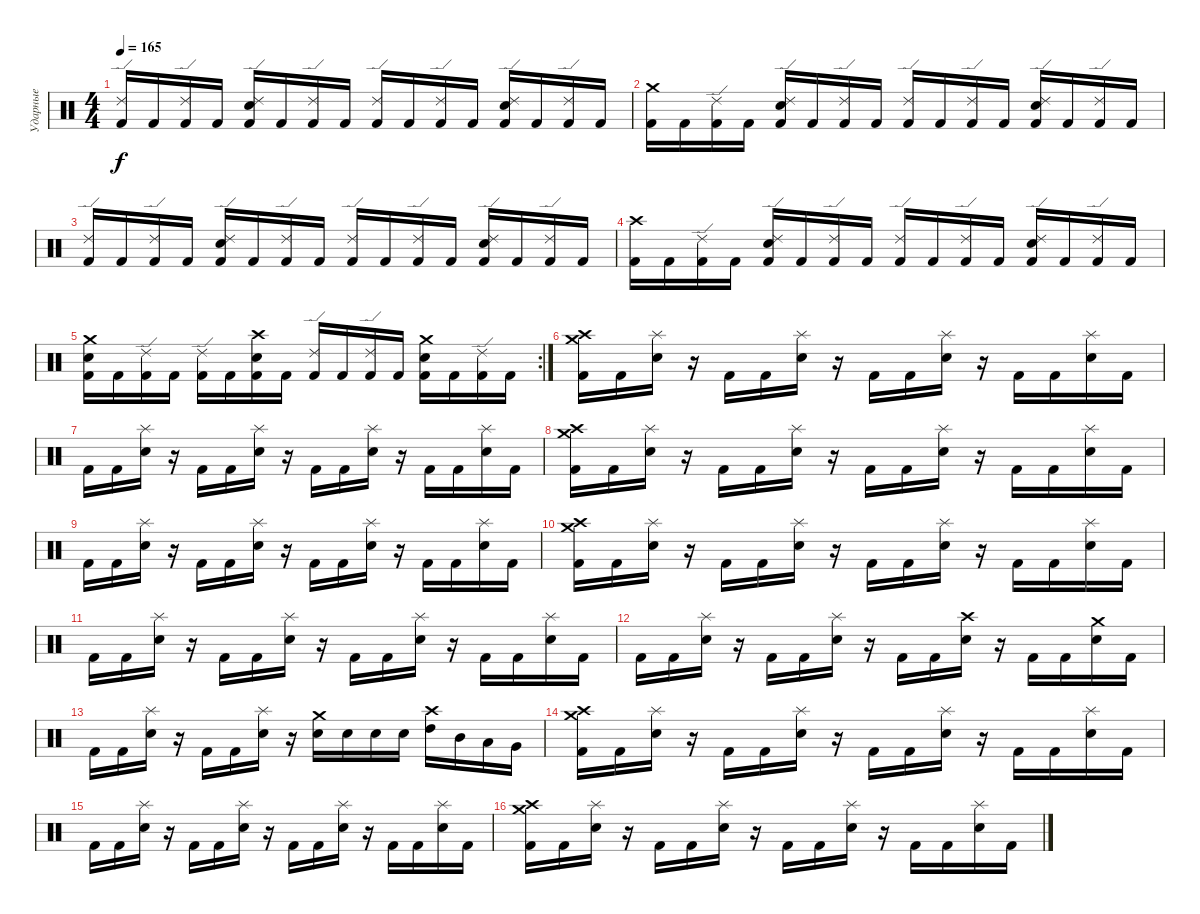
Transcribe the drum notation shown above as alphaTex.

\track ("Ударные" "Ударные") {instrument percussion}
\staff {score}
\articulation defaults
\ts (4 4)
\tempo 165
\clef neutral
\ks c
("Ride (edge) 2" "Kick (hit) 2").16{dy f} "Kick (hit) 2".16 ("Ride (edge) 2" "Kick (hit) 2").16 "Kick (hit) 2".16 ("Ride (edge) 2" "Electric Snare (hit)" "Kick (hit) 2").16 "Kick (hit) 2".16 ("Ride (edge) 2" "Kick (hit) 2").16 "Kick (hit) 2".16 ("Ride (edge) 2" "Kick (hit) 2").16 "Kick (hit) 2".16 ("Ride (edge) 2" "Kick (hit) 2").16 "Kick (hit) 2".16 ("Ride (edge) 2" "Electric Snare (hit)" "Kick (hit) 2").16 "Kick (hit) 2".16 ("Ride (edge) 2" "Kick (hit) 2").16 "Kick (hit) 2".16 |
("Crash medium (hit)" "Kick (hit) 2").16 "Kick (hit) 2".16 ("Ride (edge) 2" "Kick (hit) 2").16 "Kick (hit) 2".16 ("Ride (edge) 2" "Electric Snare (hit)" "Kick (hit) 2").16 "Kick (hit) 2".16 ("Ride (edge) 2" "Kick (hit) 2").16 "Kick (hit) 2".16 ("Ride (edge) 2" "Kick (hit) 2").16 "Kick (hit) 2".16 ("Ride (edge) 2" "Kick (hit) 2").16 "Kick (hit) 2".16 ("Ride (edge) 2" "Electric Snare (hit)" "Kick (hit) 2").16 "Kick (hit) 2".16 ("Ride (edge) 2" "Kick (hit) 2").16 "Kick (hit) 2".16 |
("Ride (edge) 2" "Kick (hit) 2").16 "Kick (hit) 2".16 ("Ride (edge) 2" "Kick (hit) 2").16 "Kick (hit) 2".16 ("Ride (edge) 2" "Electric Snare (hit)" "Kick (hit) 2").16 "Kick (hit) 2".16 ("Ride (edge) 2" "Kick (hit) 2").16 "Kick (hit) 2".16 ("Ride (edge) 2" "Kick (hit) 2").16 "Kick (hit) 2".16 ("Ride (edge) 2" "Kick (hit) 2").16 "Kick (hit) 2".16 ("Ride (edge) 2" "Electric Snare (hit)" "Kick (hit) 2").16 "Kick (hit) 2".16 ("Ride (edge) 2" "Kick (hit) 2").16 "Kick (hit) 2".16 |
("Crash high (hit)" "Kick (hit) 2").16 "Kick (hit) 2".16 ("Ride (edge) 2" "Kick (hit) 2").16 "Kick (hit) 2".16 ("Ride (edge) 2" "Electric Snare (hit)" "Kick (hit) 2").16 "Kick (hit) 2".16 ("Ride (edge) 2" "Kick (hit) 2").16 "Kick (hit) 2".16 ("Ride (edge) 2" "Kick (hit) 2").16 "Kick (hit) 2".16 ("Ride (edge) 2" "Kick (hit) 2").16 "Kick (hit) 2".16 ("Ride (edge) 2" "Electric Snare (hit)" "Kick (hit) 2").16 "Kick (hit) 2".16 ("Ride (edge) 2" "Kick (hit) 2").16 "Kick (hit) 2".16 |
\rc 2
("Crash medium (hit)" "Electric Snare (hit)" "Kick (hit) 2").16 "Kick (hit) 2".16 ("Ride (edge) 2" "Kick (hit) 2").16 "Kick (hit) 2".16 ("Ride (edge) 2" "Kick (hit) 2").16 "Kick (hit) 2".16 ("Crash high (hit)" "Electric Snare (hit)" "Kick (hit) 2").16 "Kick (hit) 2".16 ("Ride (edge) 2" "Kick (hit) 2").16 "Kick (hit) 2".16 ("Ride (edge) 2" "Kick (hit) 2").16 "Kick (hit) 2".16 ("Crash medium (hit)" "Electric Snare (hit)" "Kick (hit) 2").16 "Kick (hit) 2".16 ("Ride (edge) 2" "Kick (hit) 2").16 "Kick (hit) 2".16 |
("Crash medium (hit)" "Crash high (hit)" "Kick (hit) 2").16 "Kick (hit) 2".16 ("Splash (hit)" "Electric Snare (hit)").16 r.16 "Kick (hit) 2".16 "Kick (hit) 2".16 ("Splash (hit)" "Electric Snare (hit)").16 r.16 "Kick (hit) 2".16 "Kick (hit) 2".16 ("Splash (hit)" "Electric Snare (hit)").16 r.16 "Kick (hit) 2".16 "Kick (hit) 2".16 ("Splash (hit)" "Electric Snare (hit)").16 "Kick (hit) 2".16 |
"Kick (hit) 2".16 "Kick (hit) 2".16 ("Splash (hit)" "Electric Snare (hit)").16 r.16 "Kick (hit) 2".16 "Kick (hit) 2".16 ("Splash (hit)" "Electric Snare (hit)").16 r.16 "Kick (hit) 2".16 "Kick (hit) 2".16 ("Splash (hit)" "Electric Snare (hit)").16 r.16 "Kick (hit) 2".16 "Kick (hit) 2".16 ("Splash (hit)" "Electric Snare (hit)").16 "Kick (hit) 2".16 |
("Crash medium (hit)" "Crash high (hit)" "Kick (hit) 2").16 "Kick (hit) 2".16 ("Splash (hit)" "Electric Snare (hit)").16 r.16 "Kick (hit) 2".16 "Kick (hit) 2".16 ("Splash (hit)" "Electric Snare (hit)").16 r.16 "Kick (hit) 2".16 "Kick (hit) 2".16 ("Splash (hit)" "Electric Snare (hit)").16 r.16 "Kick (hit) 2".16 "Kick (hit) 2".16 ("Splash (hit)" "Electric Snare (hit)").16 "Kick (hit) 2".16 |
"Kick (hit) 2".16 "Kick (hit) 2".16 ("Splash (hit)" "Electric Snare (hit)").16 r.16 "Kick (hit) 2".16 "Kick (hit) 2".16 ("Splash (hit)" "Electric Snare (hit)").16 r.16 "Kick (hit) 2".16 "Kick (hit) 2".16 ("Splash (hit)" "Electric Snare (hit)").16 r.16 "Kick (hit) 2".16 "Kick (hit) 2".16 ("Splash (hit)" "Electric Snare (hit)").16 "Kick (hit) 2".16 |
("Crash medium (hit)" "Crash high (hit)" "Kick (hit) 2").16 "Kick (hit) 2".16 ("Splash (hit)" "Electric Snare (hit)").16 r.16 "Kick (hit) 2".16 "Kick (hit) 2".16 ("Splash (hit)" "Electric Snare (hit)").16 r.16 "Kick (hit) 2".16 "Kick (hit) 2".16 ("Splash (hit)" "Electric Snare (hit)").16 r.16 "Kick (hit) 2".16 "Kick (hit) 2".16 ("Splash (hit)" "Electric Snare (hit)").16 "Kick (hit) 2".16 |
"Kick (hit) 2".16 "Kick (hit) 2".16 ("Splash (hit)" "Electric Snare (hit)").16 r.16 "Kick (hit) 2".16 "Kick (hit) 2".16 ("Splash (hit)" "Electric Snare (hit)").16 r.16 "Kick (hit) 2".16 "Kick (hit) 2".16 ("Splash (hit)" "Electric Snare (hit)").16 r.16 "Kick (hit) 2".16 "Kick (hit) 2".16 ("Splash (hit)" "Electric Snare (hit)").16 "Kick (hit) 2".16 |
"Kick (hit) 2".16 "Kick (hit) 2".16 ("Splash (hit)" "Electric Snare (hit)").16 r.16 "Kick (hit) 2".16 "Kick (hit) 2".16 ("Splash (hit)" "Electric Snare (hit)").16 r.16 "Kick (hit) 2".16 "Kick (hit) 2".16 ("Crash high (hit)" "Electric Snare (hit)").16 r.16 "Kick (hit) 2".16 "Kick (hit) 2".16 ("Crash medium (hit)" "Electric Snare (hit)").16 "Kick (hit) 2".16 |
"Kick (hit) 2".16 "Kick (hit) 2".16 ("Splash (hit)" "Electric Snare (hit)").16 r.16 "Kick (hit) 2".16 "Kick (hit) 2".16 ("Splash (hit)" "Electric Snare (hit)").16 r.16 ("Crash medium (hit)" "Electric Snare (hit)").16 "Electric Snare (hit)".16 "Electric Snare (hit)".16 "Electric Snare (hit)".16 ("Crash high (hit)" "High Tom (hit)").16 "Mid Tom (hit)".16 "Low Tom (hit)".16 "Very Low Tom (hit)".16 |
("Crash medium (hit)" "Crash high (hit)" "Kick (hit) 2").16 "Kick (hit) 2".16 ("Splash (hit)" "Electric Snare (hit)").16 r.16 "Kick (hit) 2".16 "Kick (hit) 2".16 ("Splash (hit)" "Electric Snare (hit)").16 r.16 "Kick (hit) 2".16 "Kick (hit) 2".16 ("Splash (hit)" "Electric Snare (hit)").16 r.16 "Kick (hit) 2".16 "Kick (hit) 2".16 ("Splash (hit)" "Electric Snare (hit)").16 "Kick (hit) 2".16 |
"Kick (hit) 2".16 "Kick (hit) 2".16 ("Splash (hit)" "Electric Snare (hit)").16 r.16 "Kick (hit) 2".16 "Kick (hit) 2".16 ("Splash (hit)" "Electric Snare (hit)").16 r.16 "Kick (hit) 2".16 "Kick (hit) 2".16 ("Splash (hit)" "Electric Snare (hit)").16 r.16 "Kick (hit) 2".16 "Kick (hit) 2".16 ("Splash (hit)" "Electric Snare (hit)").16 "Kick (hit) 2".16 |
("Crash medium (hit)" "Crash high (hit)" "Kick (hit) 2").16 "Kick (hit) 2".16 ("Splash (hit)" "Electric Snare (hit)").16 r.16 "Kick (hit) 2".16 "Kick (hit) 2".16 ("Splash (hit)" "Electric Snare (hit)").16 r.16 "Kick (hit) 2".16 "Kick (hit) 2".16 ("Splash (hit)" "Electric Snare (hit)").16 r.16 "Kick (hit) 2".16 "Kick (hit) 2".16 ("Splash (hit)" "Electric Snare (hit)").16 "Kick (hit) 2".16
